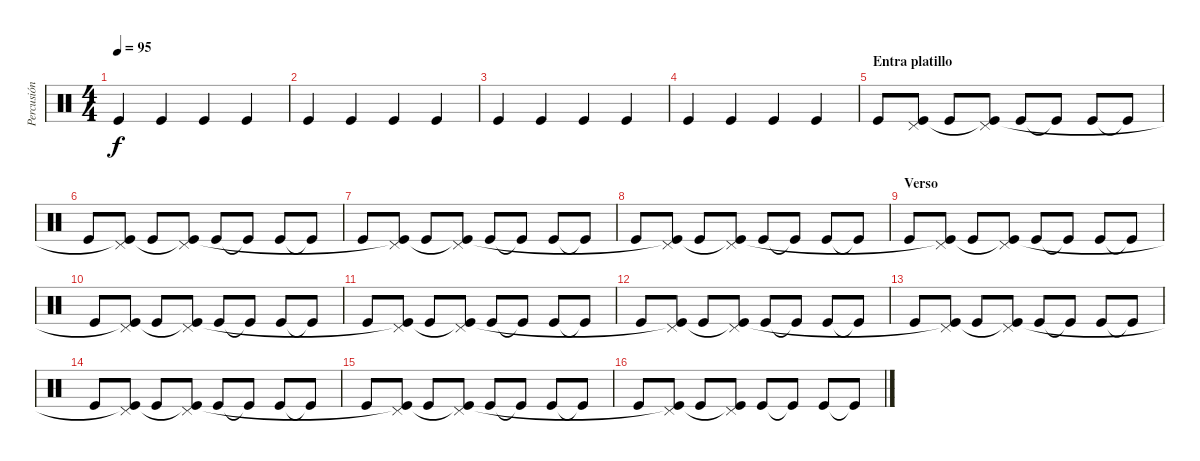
\track ("Percusión" "Percusión") {instrument percussion}
\staff {score}
\articulation defaults
\ts (4 4)
\tempo 95
\clef neutral
\ks c "Kick (hit)".4{dy f} "Kick (hit)".4 "Kick (hit)".4 "Kick (hit)".4
|
"Kick (hit)".4 "Kick (hit)".4 "Kick (hit)".4 "Kick (hit)".4 |
"Kick (hit)".4 "Kick (hit)".4 "Kick (hit)".4 "Kick (hit)".4 |
"Kick (hit)".4 "Kick (hit)".4 "Kick (hit)".4 "Kick (hit)".4 |
\section ("" "Entra platillo")
"Kick (hit)".8 ("Pedal Hi-Hat (hit)" "Kick (hit)").8 "Kick (hit)".8 ("Pedal Hi-Hat (hit)" "Kick (hit)"{t}).8 "Kick (hit)".8 "Kick (hit)"{t}.8 "Kick (hit)".8 "Kick (hit)"{t}.8 |
"Kick (hit)".8 ("Pedal Hi-Hat (hit)" "Kick (hit)"{t}).8 "Kick (hit)".8 ("Pedal Hi-Hat (hit)" "Kick (hit)"{t}).8 "Kick (hit)".8 "Kick (hit)"{t}.8 "Kick (hit)".8 "Kick (hit)"{t}.8 |
"Kick (hit)".8 ("Pedal Hi-Hat (hit)" "Kick (hit)"{t}).8 "Kick (hit)".8 ("Pedal Hi-Hat (hit)" "Kick (hit)"{t}).8 "Kick (hit)".8 "Kick (hit)"{t}.8 "Kick (hit)".8 "Kick (hit)"{t}.8 |
"Kick (hit)".8 ("Pedal Hi-Hat (hit)" "Kick (hit)"{t}).8 "Kick (hit)".8 ("Pedal Hi-Hat (hit)" "Kick (hit)"{t}).8 "Kick (hit)".8 "Kick (hit)"{t}.8 "Kick (hit)".8 "Kick (hit)"{t}.8 |
\section ("" "Verso")
"Kick (hit)".8 ("Pedal Hi-Hat (hit)" "Kick (hit)"{t}).8 "Kick (hit)".8 ("Pedal Hi-Hat (hit)" "Kick (hit)"{t}).8 "Kick (hit)".8 "Kick (hit)"{t}.8 "Kick (hit)".8 "Kick (hit)"{t}.8 |
"Kick (hit)".8 ("Pedal Hi-Hat (hit)" "Kick (hit)"{t}).8 "Kick (hit)".8 ("Pedal Hi-Hat (hit)" "Kick (hit)"{t}).8 "Kick (hit)".8 "Kick (hit)"{t}.8 "Kick (hit)".8 "Kick (hit)"{t}.8 |
"Kick (hit)".8 ("Pedal Hi-Hat (hit)" "Kick (hit)"{t}).8 "Kick (hit)".8 ("Pedal Hi-Hat (hit)" "Kick (hit)"{t}).8 "Kick (hit)".8 "Kick (hit)"{t}.8 "Kick (hit)".8 "Kick (hit)"{t}.8 |
"Kick (hit)".8 ("Pedal Hi-Hat (hit)" "Kick (hit)"{t}).8 "Kick (hit)".8 ("Pedal Hi-Hat (hit)" "Kick (hit)"{t}).8 "Kick (hit)".8 "Kick (hit)"{t}.8 "Kick (hit)".8 "Kick (hit)"{t}.8 |
"Kick (hit)".8 ("Pedal Hi-Hat (hit)" "Kick (hit)"{t}).8 "Kick (hit)".8 ("Pedal Hi-Hat (hit)" "Kick (hit)"{t}).8 "Kick (hit)".8 "Kick (hit)"{t}.8 "Kick (hit)".8 "Kick (hit)"{t}.8 |
"Kick (hit)".8 ("Pedal Hi-Hat (hit)" "Kick (hit)"{t}).8 "Kick (hit)".8 ("Pedal Hi-Hat (hit)" "Kick (hit)"{t}).8 "Kick (hit)".8 "Kick (hit)"{t}.8 "Kick (hit)".8 "Kick (hit)"{t}.8 |
"Kick (hit)".8 ("Pedal Hi-Hat (hit)" "Kick (hit)"{t}).8 "Kick (hit)".8 ("Pedal Hi-Hat (hit)" "Kick (hit)"{t}).8 "Kick (hit)".8 "Kick (hit)"{t}.8 "Kick (hit)".8 "Kick (hit)"{t}.8 |
"Kick (hit)".8 ("Pedal Hi-Hat (hit)" "Kick (hit)"{t}).8 "Kick (hit)".8 ("Pedal Hi-Hat (hit)" "Kick (hit)"{t}).8 "Kick (hit)".8 "Kick (hit)"{t}.8 "Kick (hit)".8 "Kick (hit)"{t}.8
